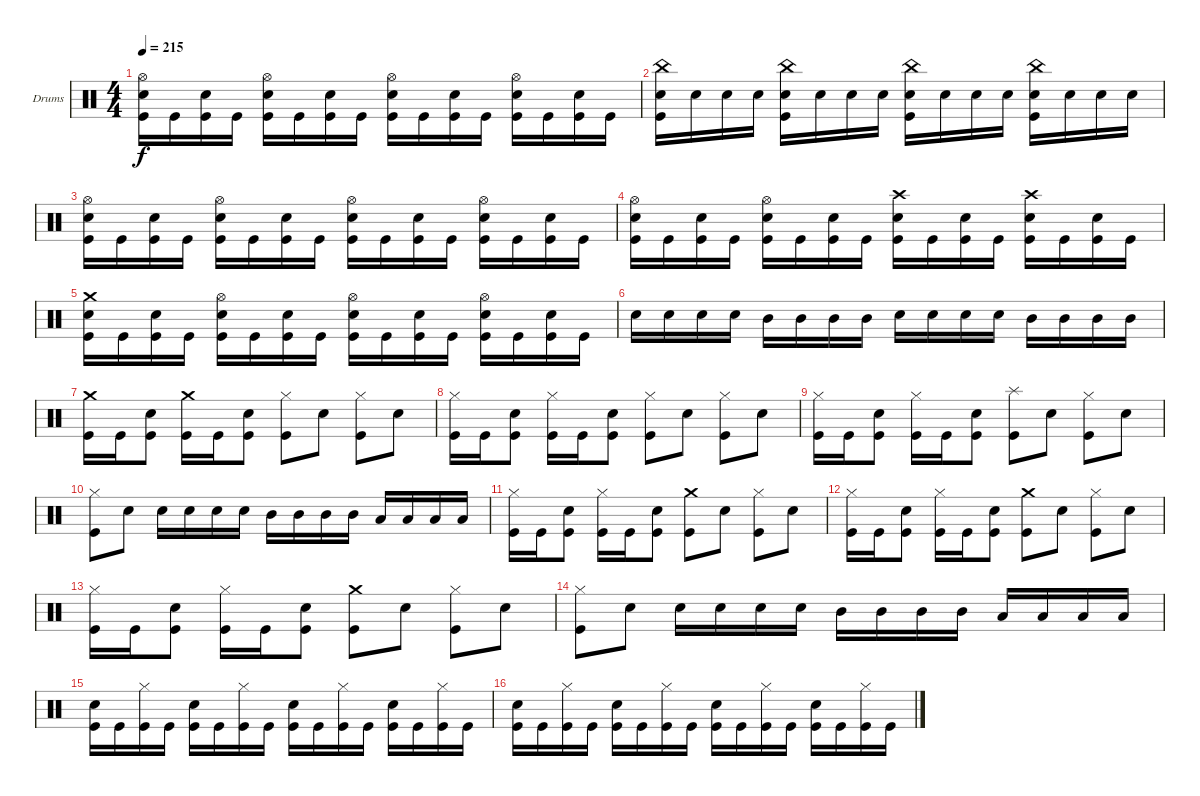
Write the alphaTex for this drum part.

\defaultSystemsLayout 4
\bracketExtendMode groupsimilarinstruments
\firstSystemTrackNameOrientation horizontal
\otherSystemsTrackNameOrientation horizontal
\track ("Trey Williams" "Drums") {instrument percussion}
\staff {score}
\articulation defaults
\ts (4 4)
\tempo 215
\clef neutral
\ks c
("Kick (hit)" "Snare (hit) 2" "Hi-Hat (open)").16{dy f} "Kick (hit)".16 ("Kick (hit)" "Snare (hit) 2").16 "Kick (hit)".16 ("Kick (hit)" "Snare (hit) 2" "Hi-Hat (open)").16 "Kick (hit)".16 ("Kick (hit)" "Snare (hit) 2").16 "Kick (hit)".16 ("Kick (hit)" "Snare (hit) 2" "Hi-Hat (open)").16 "Kick (hit)".16 ("Kick (hit)" "Snare (hit) 2").16 "Kick (hit)".16 ("Kick (hit)" "Snare (hit) 2" "Hi-Hat (open)").16 "Kick (hit)".16 ("Kick (hit)" "Snare (hit) 2").16 "Kick (hit)".16 |
("China (hit)" "Snare (hit) 2" "Kick (hit)").16 "Snare (hit) 2".16 "Snare (hit) 2".16 "Snare (hit) 2".16 ("China (hit)" "Snare (hit) 2" "Kick (hit)").16 "Snare (hit) 2".16 "Snare (hit) 2".16 "Snare (hit) 2".16 ("China (hit)" "Snare (hit) 2" "Kick (hit)").16 "Snare (hit) 2".16 "Snare (hit) 2".16 "Snare (hit) 2".16 ("China (hit)" "Snare (hit) 2" "Kick (hit)").16 "Snare (hit) 2".16 "Snare (hit) 2".16 "Snare (hit) 2".16 |
("Kick (hit)" "Snare (hit) 2" "Hi-Hat (open)").16 "Kick (hit)".16 ("Kick (hit)" "Snare (hit) 2").16 "Kick (hit)".16 ("Kick (hit)" "Snare (hit) 2" "Hi-Hat (open)").16 "Kick (hit)".16 ("Kick (hit)" "Snare (hit) 2").16 "Kick (hit)".16 ("Kick (hit)" "Snare (hit) 2" "Hi-Hat (open)").16 "Kick (hit)".16 ("Kick (hit)" "Snare (hit) 2").16 "Kick (hit)".16 ("Kick (hit)" "Snare (hit) 2" "Hi-Hat (open)").16 "Kick (hit)".16 ("Kick (hit)" "Snare (hit) 2").16 "Kick (hit)".16 |
("Kick (hit)" "Snare (hit) 2" "Hi-Hat (open)").16 "Kick (hit)".16 ("Kick (hit)" "Snare (hit) 2").16 "Kick (hit)".16 ("Kick (hit)" "Snare (hit) 2" "Hi-Hat (open)").16 "Kick (hit)".16 ("Kick (hit)" "Snare (hit) 2").16 "Kick (hit)".16 ("Kick (hit)" "Snare (hit) 2" "Crash high (hit)").16 "Kick (hit)".16 ("Kick (hit)" "Snare (hit) 2").16 "Kick (hit)".16 ("Kick (hit)" "Snare (hit) 2" "Crash high (hit)").16 "Kick (hit)".16 ("Kick (hit)" "Snare (hit) 2").16 "Kick (hit)".16 |
("Kick (hit)" "Snare (hit) 2" "Crash medium (hit)").16 "Kick (hit)".16 ("Kick (hit)" "Snare (hit) 2").16 "Kick (hit)".16 ("Kick (hit)" "Snare (hit) 2" "Hi-Hat (open)").16 "Kick (hit)".16 ("Kick (hit)" "Snare (hit) 2").16 "Kick (hit)".16 ("Kick (hit)" "Snare (hit) 2" "Hi-Hat (open)").16 "Kick (hit)".16 ("Kick (hit)" "Snare (hit) 2").16 "Kick (hit)".16 ("Kick (hit)" "Snare (hit) 2" "Hi-Hat (open)").16 "Kick (hit)".16 ("Kick (hit)" "Snare (hit) 2").16 "Kick (hit)".16 |
"Snare (hit) 2".16 "Snare (hit) 2".16 "Snare (hit) 2".16 "Snare (hit) 2".16 "Mid Tom (hit)".16 "Mid Tom (hit)".16 "Mid Tom (hit)".16 "Mid Tom (hit)".16 "Snare (hit) 2".16 "Snare (hit) 2".16 "Snare (hit) 2".16 "Snare (hit) 2".16 "Mid Tom (hit)".16 "Mid Tom (hit)".16 "Mid Tom (hit)".16 "Mid Tom (hit)".16 |
("Kick (hit)" "Crash medium (hit)").16 "Kick (hit)".16 ("Kick (hit)" "Snare (hit) 2").8 ("Kick (hit)" "Crash medium (hit)").16 "Kick (hit)".16 ("Kick (hit)" "Snare (hit) 2").8 ("Hi-Hat (closed)" "Kick (hit)").8 "Snare (hit) 2".8 ("Hi-Hat (closed)" "Kick (hit)").8 "Snare (hit) 2".8 |
("Kick (hit)" "Hi-Hat (closed)").16 "Kick (hit)".16 ("Kick (hit)" "Snare (hit) 2").8 ("Kick (hit)" "Hi-Hat (closed)").16 "Kick (hit)".16 ("Kick (hit)" "Snare (hit) 2").8 ("Hi-Hat (closed)" "Kick (hit)").8 "Snare (hit) 2".8 ("Hi-Hat (closed)" "Kick (hit)").8 "Snare (hit) 2".8 |
("Kick (hit)" "Hi-Hat (closed)").16 "Kick (hit)".16 ("Kick (hit)" "Snare (hit) 2").8 ("Kick (hit)" "Hi-Hat (closed)").16 "Kick (hit)".16 ("Kick (hit)" "Snare (hit) 2").8 ("Kick (hit)" "Splash (hit)").8 "Snare (hit) 2".8 ("Hi-Hat (closed)" "Kick (hit)").8 "Snare (hit) 2".8 |
("Kick (hit)" "Hi-Hat (closed)").8 "Snare (hit) 2".8 "Snare (hit) 2".16 "Snare (hit) 2".16 "Snare (hit) 2".16 "Snare (hit) 2".16 "Mid Tom (hit)".16 "Mid Tom (hit)".16 "Mid Tom (hit)".16 "Mid Tom (hit)".16 "Low Tom (hit)".16 "Low Tom (hit)".16 "Low Tom (hit)".16 "Low Tom (hit)".16 |
("Kick (hit)" "Hi-Hat (closed)").16 "Kick (hit)".16 ("Kick (hit)" "Snare (hit) 2").8 ("Kick (hit)" "Hi-Hat (closed)").16 "Kick (hit)".16 ("Kick (hit)" "Snare (hit) 2").8 ("Kick (hit)" "Crash medium (hit)").8 "Snare (hit) 2".8 ("Hi-Hat (closed)" "Kick (hit)").8 "Snare (hit) 2".8 |
("Kick (hit)" "Hi-Hat (closed)").16 "Kick (hit)".16 ("Kick (hit)" "Snare (hit) 2").8 ("Kick (hit)" "Hi-Hat (closed)").16 "Kick (hit)".16 ("Kick (hit)" "Snare (hit) 2").8 ("Kick (hit)" "Crash medium (hit)").8 "Snare (hit) 2".8 ("Hi-Hat (closed)" "Kick (hit)").8 "Snare (hit) 2".8 |
("Kick (hit)" "Hi-Hat (closed)").16 "Kick (hit)".16 ("Kick (hit)" "Snare (hit) 2").8 ("Kick (hit)" "Hi-Hat (closed)").16 "Kick (hit)".16 ("Kick (hit)" "Snare (hit) 2").8 ("Kick (hit)" "Crash medium (hit)").8 "Snare (hit) 2".8 ("Hi-Hat (closed)" "Kick (hit)").8 "Snare (hit) 2".8 |
("Kick (hit)" "Hi-Hat (closed)").8 "Snare (hit) 2".8 "Snare (hit) 2".16 "Snare (hit) 2".16 "Snare (hit) 2".16 "Snare (hit) 2".16 "Mid Tom (hit)".16 "Mid Tom (hit)".16 "Mid Tom (hit)".16 "Mid Tom (hit)".16 "Low Tom (hit)".16 "Low Tom (hit)".16 "Low Tom (hit)".16 "Low Tom (hit)".16 |
("Kick (hit)" "Snare (hit) 2").16 "Kick (hit)".16 ("Kick (hit)" "Hi-Hat (closed)").16 "Kick (hit)".16 ("Kick (hit)" "Snare (hit) 2").16 "Kick (hit)".16 ("Kick (hit)" "Hi-Hat (closed)").16 "Kick (hit)".16 ("Kick (hit)" "Snare (hit) 2").16 "Kick (hit)".16 ("Kick (hit)" "Hi-Hat (closed)").16 "Kick (hit)".16 ("Kick (hit)" "Snare (hit) 2").16 "Kick (hit)".16 ("Kick (hit)" "Hi-Hat (closed)").16 "Kick (hit)".16 |
("Kick (hit)" "Snare (hit) 2").16 "Kick (hit)".16 ("Kick (hit)" "Hi-Hat (closed)").16 "Kick (hit)".16 ("Kick (hit)" "Snare (hit) 2").16 "Kick (hit)".16 ("Kick (hit)" "Hi-Hat (closed)").16 "Kick (hit)".16 ("Kick (hit)" "Snare (hit) 2").16 "Kick (hit)".16 ("Kick (hit)" "Hi-Hat (closed)").16 "Kick (hit)".16 ("Kick (hit)" "Snare (hit) 2").16 "Kick (hit)".16 ("Kick (hit)" "Hi-Hat (closed)").16 "Kick (hit)".16
